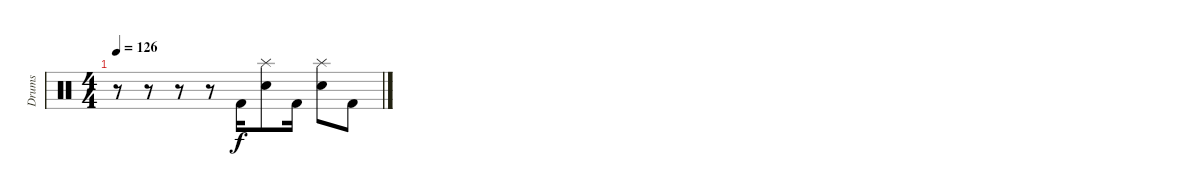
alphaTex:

\track ("Drums" "Drums") {instrument percussion}
\staff {score}
\articulation defaults
\ts (4 4)
\tempo 126
\clef neutral
\ks c
r.8{dy f} r.8 r.8 r.8 "Kick (hit) 2".16 ("Splash (hit)" "Electric Snare (hit)").8 "Kick (hit) 2".16 ("Splash (hit)" "Electric Snare (hit)").8 "Kick (hit) 2".8
